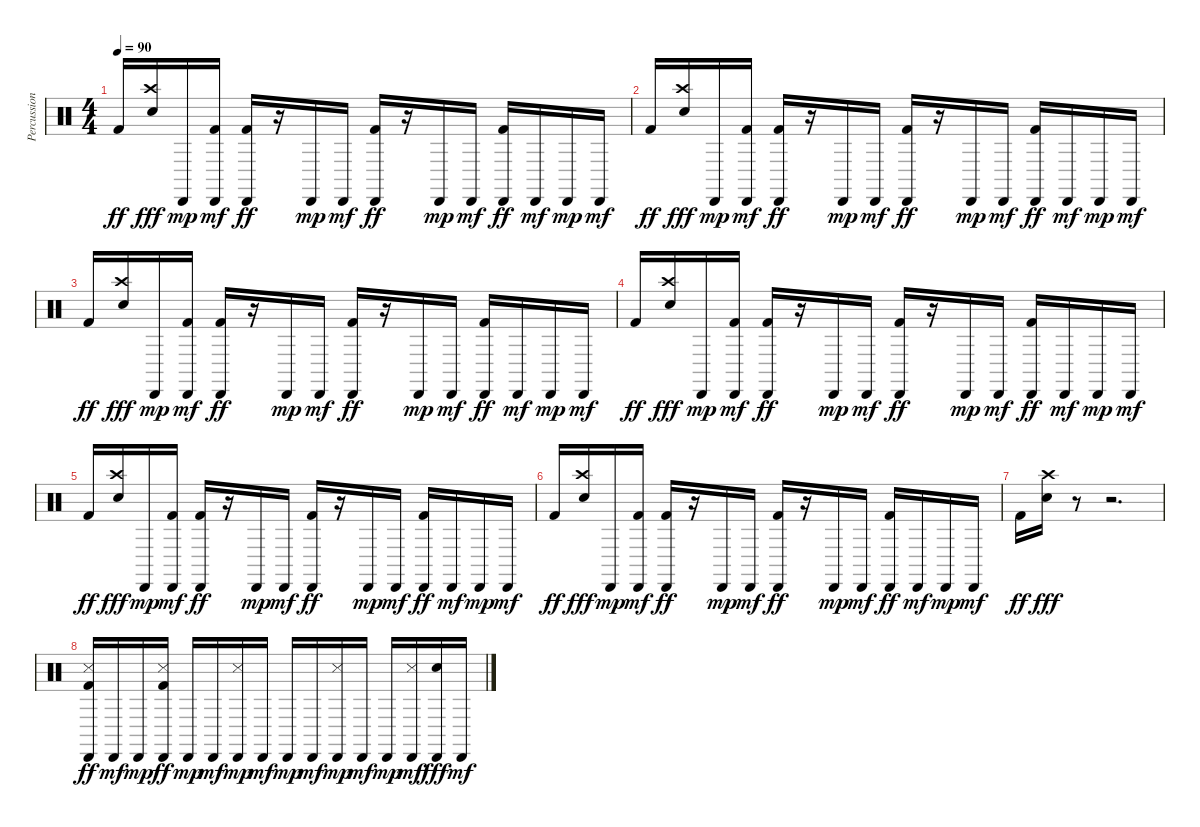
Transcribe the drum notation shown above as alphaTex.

\track ("Percussions" "Percussion") {instrument percussion}
\staff {score}
\articulation defaults
\ts (4 4)
\tempo 90
\clef neutral
\ks c "Kick (hit) 2".16{dy ff}
("Crash high (hit)" "Snare (hit) 2").16{dy fff} "Cabasa (hit)".16{dy mp} ("Cabasa (hit)" "Kick (hit) 2").16{dy mf} ("Cabasa (hit)" "Kick (hit) 2").16{dy ff} r.16 "Cabasa (hit)".16{dy mp} "Cabasa (hit)".16{dy mf} ("Cabasa (hit)" "Kick (hit) 2").16{dy ff} r.16 "Cabasa (hit)".16{dy mp} "Cabasa (hit)".16{dy mf} ("Cabasa (hit)" "Kick (hit) 2").16{dy ff} "Cabasa (hit)".16{dy mf} "Cabasa (hit)".16{dy mp} "Cabasa (hit)".16{dy mf} |
"Kick (hit) 2".16{dy ff} ("Crash high (hit)" "Snare (hit) 2").16{dy fff} "Cabasa (hit)".16{dy mp} ("Cabasa (hit)" "Kick (hit) 2").16{dy mf} ("Cabasa (hit)" "Kick (hit) 2").16{dy ff} r.16 "Cabasa (hit)".16{dy mp} "Cabasa (hit)".16{dy mf} ("Cabasa (hit)" "Kick (hit) 2").16{dy ff} r.16 "Cabasa (hit)".16{dy mp} "Cabasa (hit)".16{dy mf} ("Cabasa (hit)" "Kick (hit) 2").16{dy ff} "Cabasa (hit)".16{dy mf} "Cabasa (hit)".16{dy mp} "Cabasa (hit)".16{dy mf} |
"Kick (hit) 2".16{dy ff} ("Crash high (hit)" "Snare (hit) 2").16{dy fff} "Cabasa (hit)".16{dy mp} ("Cabasa (hit)" "Kick (hit) 2").16{dy mf} ("Cabasa (hit)" "Kick (hit) 2").16{dy ff} r.16 "Cabasa (hit)".16{dy mp} "Cabasa (hit)".16{dy mf} ("Cabasa (hit)" "Kick (hit) 2").16{dy ff} r.16 "Cabasa (hit)".16{dy mp} "Cabasa (hit)".16{dy mf} ("Cabasa (hit)" "Kick (hit) 2").16{dy ff} "Cabasa (hit)".16{dy mf} "Cabasa (hit)".16{dy mp} "Cabasa (hit)".16{dy mf} |
"Kick (hit) 2".16{dy ff} ("Crash high (hit)" "Snare (hit) 2").16{dy fff} "Cabasa (hit)".16{dy mp} ("Cabasa (hit)" "Kick (hit) 2").16{dy mf} ("Cabasa (hit)" "Kick (hit) 2").16{dy ff} r.16 "Cabasa (hit)".16{dy mp} "Cabasa (hit)".16{dy mf} ("Cabasa (hit)" "Kick (hit) 2").16{dy ff} r.16 "Cabasa (hit)".16{dy mp} "Cabasa (hit)".16{dy mf} ("Cabasa (hit)" "Kick (hit) 2").16{dy ff} "Cabasa (hit)".16{dy mf} "Cabasa (hit)".16{dy mp} "Cabasa (hit)".16{dy mf} |
"Kick (hit) 2".16{dy ff} ("Crash high (hit)" "Snare (hit) 2").16{dy fff} "Cabasa (hit)".16{dy mp} ("Cabasa (hit)" "Kick (hit) 2").16{dy mf} ("Cabasa (hit)" "Kick (hit) 2").16{dy ff} r.16 "Cabasa (hit)".16{dy mp} "Cabasa (hit)".16{dy mf} ("Cabasa (hit)" "Kick (hit) 2").16{dy ff} r.16 "Cabasa (hit)".16{dy mp} "Cabasa (hit)".16{dy mf} ("Cabasa (hit)" "Kick (hit) 2").16{dy ff} "Cabasa (hit)".16{dy mf} "Cabasa (hit)".16{dy mp} "Cabasa (hit)".16{dy mf} |
"Kick (hit) 2".16{dy ff} ("Crash high (hit)" "Snare (hit) 2").16{dy fff} "Cabasa (hit)".16{dy mp} ("Cabasa (hit)" "Kick (hit) 2").16{dy mf} ("Cabasa (hit)" "Kick (hit) 2").16{dy ff} r.16 "Cabasa (hit)".16{dy mp} "Cabasa (hit)".16{dy mf} ("Cabasa (hit)" "Kick (hit) 2").16{dy ff} r.16 "Cabasa (hit)".16{dy mp} "Cabasa (hit)".16{dy mf} ("Cabasa (hit)" "Kick (hit) 2").16{dy ff} "Cabasa (hit)".16{dy mf} "Cabasa (hit)".16{dy mp} "Cabasa (hit)".16{dy mf} |
"Kick (hit) 2".16{dy ff} ("Crash high (hit)" "Snare (hit) 2").16{dy fff} r.8 r.2{d} |
("Cabasa (hit)" "Snare (side stick) 3" "Kick (hit) 2").16{dy ff} "Cabasa (hit)".16{dy mf} "Cabasa (hit)".16{dy mp} ("Cabasa (hit)" "Snare (side stick) 3" "Kick (hit) 2").16{dy ff} "Cabasa (hit)".16{dy mp} "Cabasa (hit)".16{dy mf} ("Cabasa (hit)" "Snare (side stick) 3").16{dy mp} "Cabasa (hit)".16{dy mf} "Cabasa (hit)".16{dy mp} "Cabasa (hit)".16{dy mf} ("Cabasa (hit)" "Snare (side stick) 3").16{dy mp} "Cabasa (hit)".16{dy mf} "Cabasa (hit)".16{dy mp} ("Cabasa (hit)" "Snare (side stick) 3").16{dy mf} ("Cabasa (hit)" "Snare (hit) 2").16{dy fff} "Cabasa (hit)".16{dy mf}
